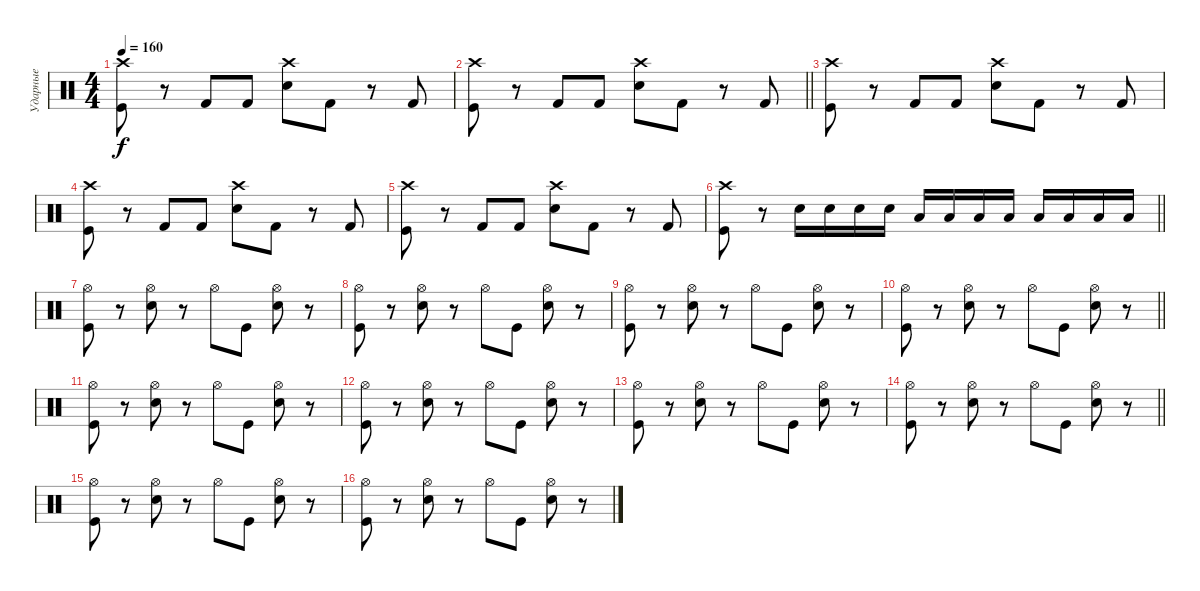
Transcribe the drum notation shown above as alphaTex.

\track ("Ударные" "Ударные") {instrument percussion}
\staff {score}
\articulation defaults
\ts (4 4)
\tempo 160
\clef neutral
\ks c
("Kick (hit)" "Crash high (hit)").8{dy f} r.8 "Kick (hit) 2".8 "Kick (hit) 2".8 ("Snare (hit) 2" "Crash high (hit)").8 "Kick (hit) 2".8 r.8 "Kick (hit) 2".8 |
\barLineRight lightlight
("Kick (hit)" "Crash high (hit)").8 r.8 "Kick (hit) 2".8 "Kick (hit) 2".8 ("Snare (hit) 2" "Crash high (hit)").8 "Kick (hit) 2".8 r.8 "Kick (hit) 2".8 |
("Kick (hit)" "Crash high (hit)").8 r.8 "Kick (hit) 2".8 "Kick (hit) 2".8 ("Snare (hit) 2" "Crash high (hit)").8 "Kick (hit) 2".8 r.8 "Kick (hit) 2".8 |
("Kick (hit)" "Crash high (hit)").8 r.8 "Kick (hit) 2".8 "Kick (hit) 2".8 ("Snare (hit) 2" "Crash high (hit)").8 "Kick (hit) 2".8 r.8 "Kick (hit) 2".8 |
("Kick (hit)" "Crash high (hit)").8 r.8 "Kick (hit) 2".8 "Kick (hit) 2".8 ("Snare (hit) 2" "Crash high (hit)").8 "Kick (hit) 2".8 r.8 "Kick (hit) 2".8 |
\barLineRight lightlight
("Kick (hit)" "Crash high (hit)").8 r.8 "Snare (hit) 2".16 "Snare (hit) 2".16 "Snare (hit) 2".16 "Snare (hit) 2".16 "Low Tom (hit)".16 "Low Tom (hit)".16 "Low Tom (hit)".16 "Low Tom (hit)".16 "Low Floor Tom (hit)".16 "Low Floor Tom (hit)".16 "Low Floor Tom (hit)".16 "Low Floor Tom (hit)".16 |
("Kick (hit)" "Hi-Hat (open)").8 r.8 ("Snare (hit) 2" "Hi-Hat (open)").8 r.8 "Hi-Hat (open)".8 "Kick (hit)".8 ("Snare (hit) 2" "Hi-Hat (open)").8 r.8 |
("Kick (hit)" "Hi-Hat (open)").8 r.8 ("Snare (hit) 2" "Hi-Hat (open)").8 r.8 "Hi-Hat (open)".8 "Kick (hit)".8 ("Snare (hit) 2" "Hi-Hat (open)").8 r.8 |
("Kick (hit)" "Hi-Hat (open)").8 r.8 ("Snare (hit) 2" "Hi-Hat (open)").8 r.8 "Hi-Hat (open)".8 "Kick (hit)".8 ("Snare (hit) 2" "Hi-Hat (open)").8 r.8 |
\barLineRight lightlight
("Kick (hit)" "Hi-Hat (open)").8 r.8 ("Snare (hit) 2" "Hi-Hat (open)").8 r.8 "Hi-Hat (open)".8 "Kick (hit)".8 ("Snare (hit) 2" "Hi-Hat (open)").8 r.8 |
("Kick (hit)" "Hi-Hat (open)").8 r.8 ("Snare (hit) 2" "Hi-Hat (open)").8 r.8 "Hi-Hat (open)".8 "Kick (hit)".8 ("Snare (hit) 2" "Hi-Hat (open)").8 r.8 |
("Kick (hit)" "Hi-Hat (open)").8 r.8 ("Snare (hit) 2" "Hi-Hat (open)").8 r.8 "Hi-Hat (open)".8 "Kick (hit)".8 ("Snare (hit) 2" "Hi-Hat (open)").8 r.8 |
("Kick (hit)" "Hi-Hat (open)").8 r.8 ("Snare (hit) 2" "Hi-Hat (open)").8 r.8 "Hi-Hat (open)".8 "Kick (hit)".8 ("Snare (hit) 2" "Hi-Hat (open)").8 r.8 |
\barLineRight lightlight
("Kick (hit)" "Hi-Hat (open)").8 r.8 ("Snare (hit) 2" "Hi-Hat (open)").8 r.8 "Hi-Hat (open)".8 "Kick (hit)".8 ("Snare (hit) 2" "Hi-Hat (open)").8 r.8 |
("Kick (hit)" "Hi-Hat (open)").8 r.8 ("Snare (hit) 2" "Hi-Hat (open)").8 r.8 "Hi-Hat (open)".8 "Kick (hit)".8 ("Snare (hit) 2" "Hi-Hat (open)").8 r.8 |
("Kick (hit)" "Hi-Hat (open)").8 r.8 ("Snare (hit) 2" "Hi-Hat (open)").8 r.8 "Hi-Hat (open)".8 "Kick (hit)".8 ("Snare (hit) 2" "Hi-Hat (open)").8 r.8
